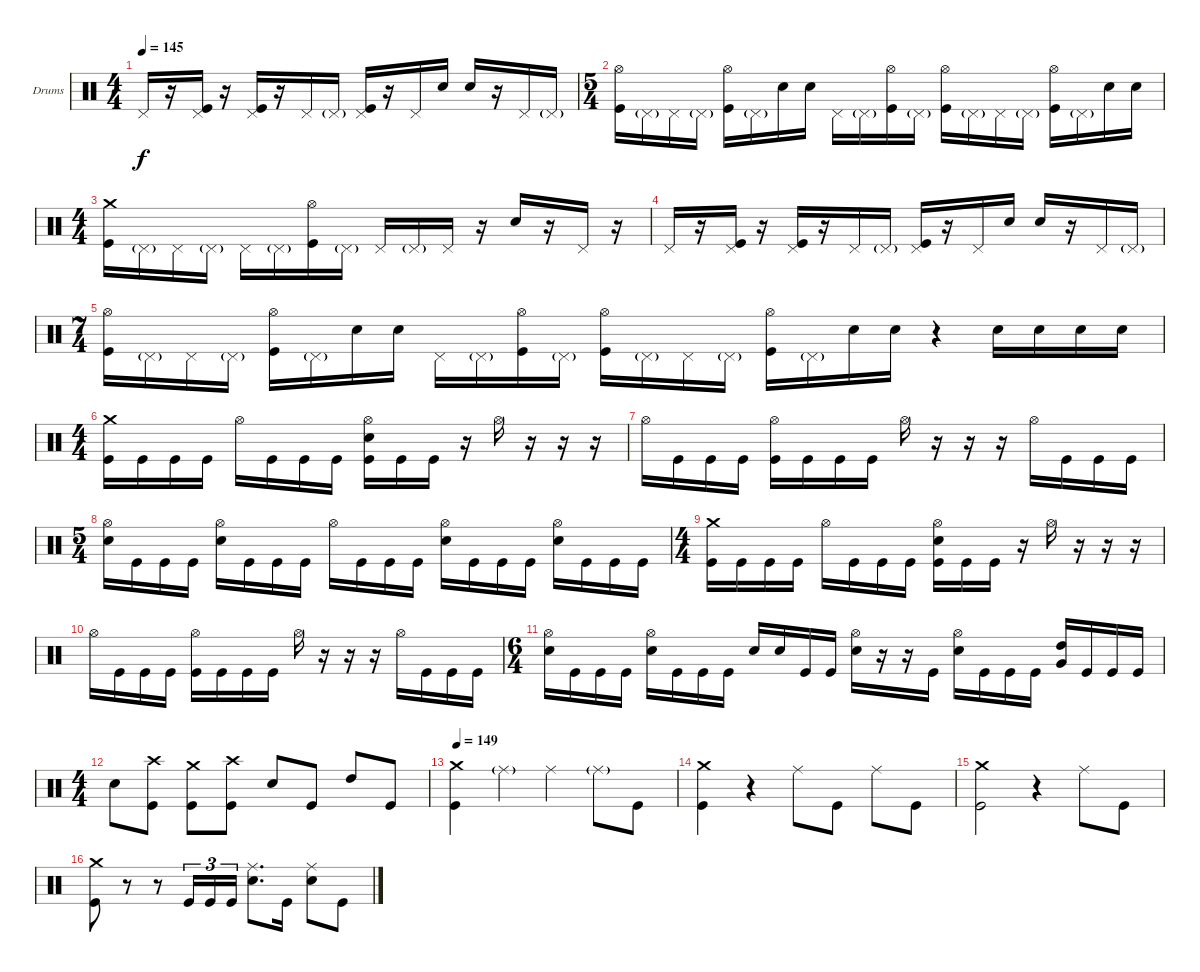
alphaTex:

\defaultSystemsLayout 4
\bracketExtendMode groupsimilarinstruments
\firstSystemTrackNameOrientation horizontal
\otherSystemsTrackNameOrientation horizontal
\track ("Moe Carlson" "Drums") {instrument percussion}
\staff {score}
\articulation defaults
\ts (4 4)
\tempo 145
\clef neutral
\ks c "Pedal Hi-Hat (hit)".16{dy f}
r.16 ("Pedal Hi-Hat (hit)" "Kick (hit)").16 r.16 ("Kick (hit)" "Pedal Hi-Hat (hit)").16 r.16 "Pedal Hi-Hat (hit)".16 "Pedal Hi-Hat (hit)"{g}.16 ("Pedal Hi-Hat (hit)" "Kick (hit)").16 r.16 "Pedal Hi-Hat (hit)".16 "Snare (hit) 2".16 "Snare (hit) 2".16 r.16 "Pedal Hi-Hat (hit)".16 "Pedal Hi-Hat (hit)"{g}.16 |
\ts (5 4)
("Kick (hit)" "Hi-Hat (open)").16 "Pedal Hi-Hat (hit)"{g}.16 "Pedal Hi-Hat (hit)".16 "Pedal Hi-Hat (hit)"{g}.16 ("Hi-Hat (open)" "Kick (hit)").16 "Pedal Hi-Hat (hit)"{g}.16 "Snare (hit) 2".16 "Snare (hit) 2".16 "Pedal Hi-Hat (hit)".16 "Pedal Hi-Hat (hit)"{g}.16 ("Hi-Hat (open)" "Kick (hit)").16 "Pedal Hi-Hat (hit)"{g}.16 ("Kick (hit)" "Hi-Hat (open)").16 "Pedal Hi-Hat (hit)"{g}.16 "Pedal Hi-Hat (hit)".16 "Pedal Hi-Hat (hit)"{g}.16 ("Kick (hit)" "Hi-Hat (open)").16 "Pedal Hi-Hat (hit)"{g}.16 "Snare (hit) 2".16 "Snare (hit) 2".16 |
\ts (4 4)
("Crash medium (hit)" "Kick (hit)").16 "Pedal Hi-Hat (hit)"{g}.16 "Pedal Hi-Hat (hit)".16 "Pedal Hi-Hat (hit)"{g}.16 "Pedal Hi-Hat (hit)".16 "Pedal Hi-Hat (hit)"{g}.16 ("Kick (hit)" "Hi-Hat (open)").16 "Pedal Hi-Hat (hit)"{g}.16 "Pedal Hi-Hat (hit)".16 "Pedal Hi-Hat (hit)"{g}.16 "Pedal Hi-Hat (hit)".16 r.16 "Snare (hit) 2".16 r.16 "Pedal Hi-Hat (hit)".16 r.16 |
"Pedal Hi-Hat (hit)".16 r.16 ("Pedal Hi-Hat (hit)" "Kick (hit)").16 r.16 ("Kick (hit)" "Pedal Hi-Hat (hit)").16 r.16 "Pedal Hi-Hat (hit)".16 "Pedal Hi-Hat (hit)"{g}.16 ("Pedal Hi-Hat (hit)" "Kick (hit)").16 r.16 "Pedal Hi-Hat (hit)".16 "Snare (hit) 2".16 "Snare (hit) 2".16 r.16 "Pedal Hi-Hat (hit)".16 "Pedal Hi-Hat (hit)"{g}.16 |
\ts (7 4)
("Kick (hit)" "Hi-Hat (open)").16 "Pedal Hi-Hat (hit)"{g}.16 "Pedal Hi-Hat (hit)".16 "Pedal Hi-Hat (hit)"{g}.16 ("Kick (hit)" "Hi-Hat (open)").16 "Pedal Hi-Hat (hit)"{g}.16 "Snare (hit) 2".16 "Snare (hit) 2".16 "Pedal Hi-Hat (hit)".16 "Pedal Hi-Hat (hit)"{g}.16 ("Hi-Hat (open)" "Kick (hit)").16 "Pedal Hi-Hat (hit)"{g}.16 ("Kick (hit)" "Hi-Hat (open)").16 "Pedal Hi-Hat (hit)"{g}.16 "Pedal Hi-Hat (hit)".16 "Pedal Hi-Hat (hit)"{g}.16 ("Kick (hit)" "Hi-Hat (open)").16 "Pedal Hi-Hat (hit)"{g}.16 "Snare (hit) 2".16 "Snare (hit) 2".16 r.4 "Snare (hit) 2".16 "Snare (hit) 2".16 "Snare (hit) 2".16 "Snare (hit) 2".16 |
\ts (4 4)
("Crash medium (hit)" "Kick (hit)").16 "Kick (hit)".16 "Kick (hit)".16 "Kick (hit)".16 "Hi-Hat (open)".16 "Kick (hit)".16 "Kick (hit)".16 "Kick (hit)".16 ("Kick (hit)" "Snare (hit) 2" "Hi-Hat (open)").16 "Kick (hit)".16 "Kick (hit)".16 r.16 "Hi-Hat (open)".16 r.16 r.16 r.16 |
"Hi-Hat (open)".16 "Kick (hit)".16 "Kick (hit)".16 "Kick (hit)".16 ("Kick (hit)" "Hi-Hat (open)").16 "Kick (hit)".16 "Kick (hit)".16 "Kick (hit)".16 "Hi-Hat (open)".16 r.16 r.16 r.16 "Hi-Hat (open)".16 "Kick (hit)".16 "Kick (hit)".16 "Kick (hit)".16 |
\ts (5 4)
("Snare (hit) 2" "Hi-Hat (open)").16 "Kick (hit)".16 "Kick (hit)".16 "Kick (hit)".16 ("Snare (hit) 2" "Hi-Hat (open)").16 "Kick (hit)".16 "Kick (hit)".16 "Kick (hit)".16 "Hi-Hat (open)".16 "Kick (hit)".16 "Kick (hit)".16 "Kick (hit)".16 ("Snare (hit) 2" "Hi-Hat (open)").16 "Kick (hit)".16 "Kick (hit)".16 "Kick (hit)".16 ("Snare (hit) 2" "Hi-Hat (open)").16 "Kick (hit)".16 "Kick (hit)".16 "Kick (hit)".16 |
\ts (4 4)
("Crash medium (hit)" "Kick (hit)").16 "Kick (hit)".16 "Kick (hit)".16 "Kick (hit)".16 "Hi-Hat (open)".16 "Kick (hit)".16 "Kick (hit)".16 "Kick (hit)".16 ("Kick (hit)" "Snare (hit) 2" "Hi-Hat (open)").16 "Kick (hit)".16 "Kick (hit)".16 r.16 "Hi-Hat (open)".16 r.16 r.16 r.16 |
"Hi-Hat (open)".16 "Kick (hit)".16 "Kick (hit)".16 "Kick (hit)".16 ("Kick (hit)" "Hi-Hat (open)").16 "Kick (hit)".16 "Kick (hit)".16 "Kick (hit)".16 "Hi-Hat (open)".16 r.16 r.16 r.16 "Hi-Hat (open)".16 "Kick (hit)".16 "Kick (hit)".16 "Kick (hit)".16 |
\ts (6 4)
("Snare (hit) 2" "Hi-Hat (open)").16 "Kick (hit)".16 "Kick (hit)".16 "Kick (hit)".16 ("Snare (hit) 2" "Hi-Hat (open)").16 "Kick (hit)".16 "Kick (hit)".16 "Kick (hit)".16 "Snare (hit) 2".16 "Snare (hit) 2".16 "Kick (hit)".16 "Kick (hit)".16 ("Snare (hit) 2" "Hi-Hat (open)").16 r.16 r.16 "Kick (hit)".16 ("Snare (hit) 2" "Hi-Hat (open)").16 "Kick (hit)".16 "Kick (hit)".16 "Kick (hit)".16 ("Very Low Tom (hit)" "High Tom (hit)").16 "Kick (hit)".16 "Kick (hit)".16 "Kick (hit)".16 |
\ts (4 4)
"Snare (hit) 2".8 ("Kick (hit)" "Crash high (hit)").8 ("Crash medium (hit)" "Kick (hit)").8 ("Crash high (hit)" "Kick (hit)").8 "Snare (hit) 2".8 "Kick (hit)".8 "High Tom (hit)".8 "Kick (hit)".8 |
\tempo (149 0.00625)
("Crash medium (hit)" "Kick (hit)").4 "Ride (middle)"{g}.4 "Ride (middle)".4 "Ride (middle)"{g}.8 "Kick (hit)".8 |
("Crash medium (hit)" "Kick (hit)").4 r.4 "Ride (middle)".8 "Kick (hit)".8 "Ride (middle)".8 "Kick (hit)".8 |
("Kick (hit)" "Crash medium (hit)").2 r.4 "Ride (middle)".8 "Kick (hit)".8 |
("Crash medium (hit)" "Kick (hit)").8 r.8 r.8 "Kick (hit)".16{tu (3 2)} "Kick (hit)".16{tu (3 2)} "Kick (hit)".16{tu (3 2)} ("Snare (hit) 2" "Ride (middle)").8{d} "Kick (hit)".16 ("Snare (hit) 2" "Ride (middle)").8 "Kick (hit)".8
